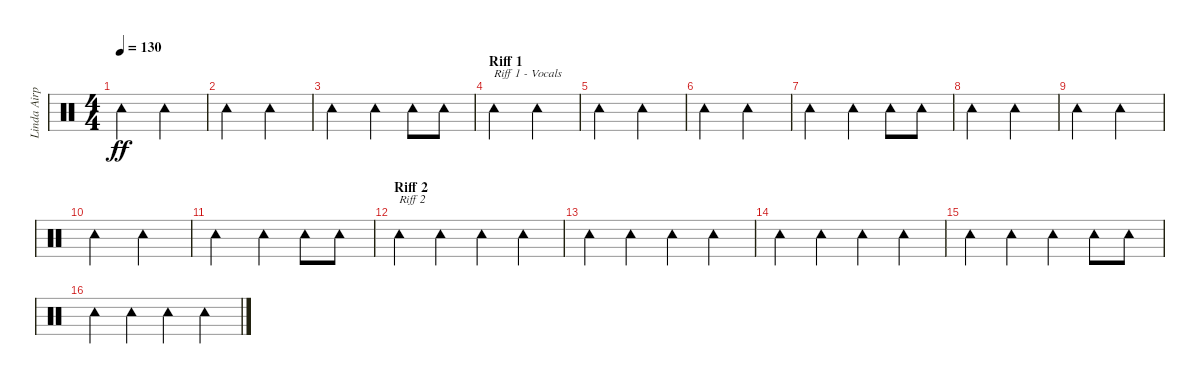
\track ("Linda Airplane" "Linda Airp") {instrument percussion}
\staff {score}
\articulation defaults
\ts (4 4)
\tempo 130
\clef neutral
\ks c "Tambourine (hit)".2{dy ff} "Tambourine (hit)".2
|
"Tambourine (hit)".2 "Tambourine (hit)".2 |
"Tambourine (hit)".2 "Tambourine (hit)".4 "Tambourine (hit)".8 "Tambourine (hit)".8 |
\section ("" "Riff 1")
"Tambourine (hit)".2{txt "Riff 1 - Vocals"} "Tambourine (hit)".2 |
"Tambourine (hit)".2 "Tambourine (hit)".2 |
"Tambourine (hit)".2 "Tambourine (hit)".2 |
"Tambourine (hit)".2 "Tambourine (hit)".4 "Tambourine (hit)".8 "Tambourine (hit)".8 |
"Tambourine (hit)".2 "Tambourine (hit)".2 |
"Tambourine (hit)".2 "Tambourine (hit)".2 |
"Tambourine (hit)".2 "Tambourine (hit)".2 |
"Tambourine (hit)".2 "Tambourine (hit)".4 "Tambourine (hit)".8 "Tambourine (hit)".8 |
\section ("" "Riff 2")
"Tambourine (hit)".4{txt "Riff 2"} "Tambourine (hit)".4 "Tambourine (hit)".4 "Tambourine (hit)".4 |
"Tambourine (hit)".4 "Tambourine (hit)".4 "Tambourine (hit)".4 "Tambourine (hit)".4 |
"Tambourine (hit)".4 "Tambourine (hit)".4 "Tambourine (hit)".4 "Tambourine (hit)".4 |
"Tambourine (hit)".4 "Tambourine (hit)".4 "Tambourine (hit)".4 "Tambourine (hit)".8 "Tambourine (hit)".8 |
"Tambourine (hit)".4 "Tambourine (hit)".4 "Tambourine (hit)".4 "Tambourine (hit)".4
